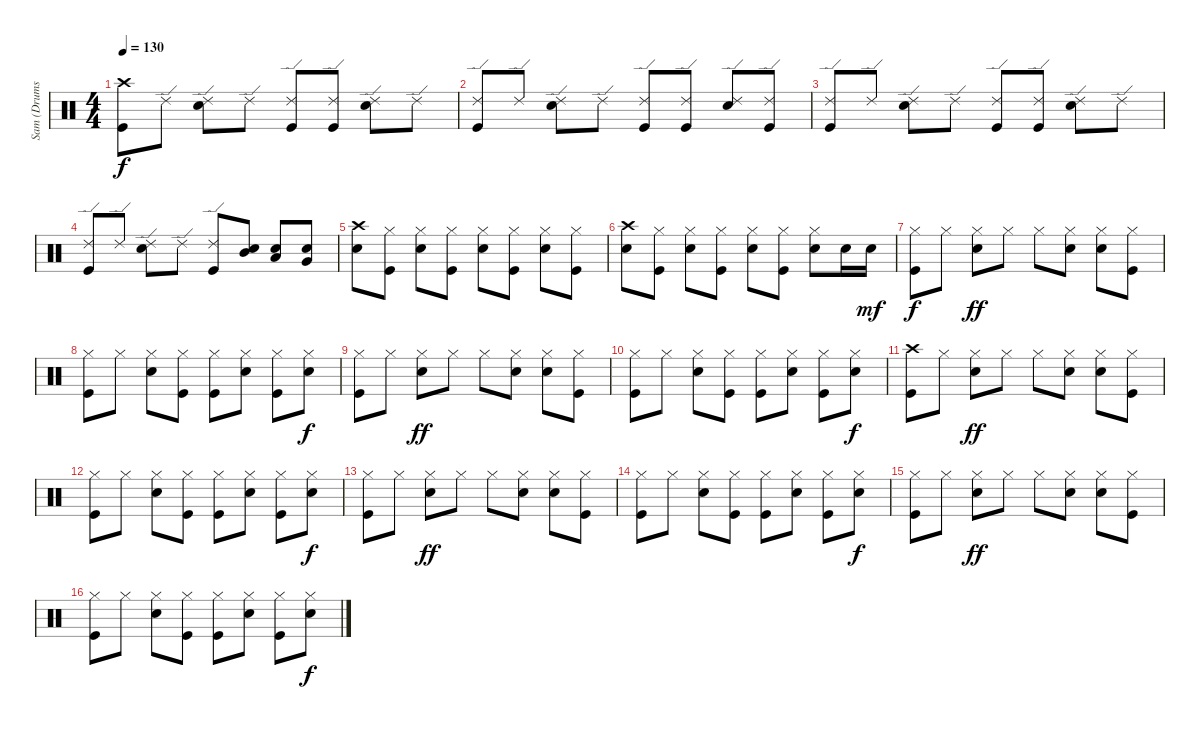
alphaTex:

\track ("Sam (Drums)" "Sam (Drums") {instrument percussion}
\staff {score}
\articulation defaults
\ts (4 4)
\tempo 130
\clef neutral
\ks c
("Crash high (hit)" "Kick (hit)").8{dy f} "Ride (edge) 2".8 ("Ride (edge) 2" "Snare (hit) 2").8 "Ride (edge) 2".8 ("Ride (edge) 2" "Kick (hit)").8 ("Ride (edge) 2" "Kick (hit)").8 ("Ride (edge) 2" "Snare (hit) 2").8 "Ride (edge) 2".8 |
("Ride (edge) 2" "Kick (hit)").8 "Ride (edge) 2".8 ("Ride (edge) 2" "Snare (hit) 2").8 "Ride (edge) 2".8 ("Ride (edge) 2" "Kick (hit)").8 ("Ride (edge) 2" "Kick (hit)").8 ("Ride (edge) 2" "Snare (hit) 2").8 ("Ride (edge) 2" "Kick (hit)").8 |
("Ride (edge) 2" "Kick (hit)").8 "Ride (edge) 2".8 ("Ride (edge) 2" "Snare (hit) 2").8 "Ride (edge) 2".8 ("Ride (edge) 2" "Kick (hit)").8 ("Ride (edge) 2" "Kick (hit)").8 ("Ride (edge) 2" "Snare (hit) 2").8 "Ride (edge) 2".8 |
("Ride (edge) 2" "Kick (hit)").8 "Ride (edge) 2".8 ("Ride (edge) 2" "Snare (hit) 2").8 "Ride (edge) 2".8 ("Ride (edge) 2" "Kick (hit)").8 ("Mid Tom (hit)" "Snare (hit) 2").8 ("Low Tom (hit)" "Snare (hit) 2").8 ("Very Low Tom (hit)" "Snare (hit) 2").8 |
("Crash high (hit)" "Snare (hit) 2").8 ("Hi-Hat (closed)" "Kick (hit)").8 ("Hi-Hat (closed)" "Snare (hit) 2").8 ("Hi-Hat (closed)" "Kick (hit)").8 ("Hi-Hat (closed)" "Snare (hit) 2").8 ("Hi-Hat (closed)" "Kick (hit)").8 ("Hi-Hat (closed)" "Snare (hit) 2").8 ("Hi-Hat (closed)" "Kick (hit)").8 |
("Crash high (hit)" "Snare (hit) 2").8 ("Hi-Hat (closed)" "Kick (hit)").8 ("Hi-Hat (closed)" "Snare (hit) 2").8 ("Hi-Hat (closed)" "Kick (hit)").8 ("Hi-Hat (closed)" "Snare (hit) 2").8 ("Hi-Hat (closed)" "Kick (hit)").8 ("Hi-Hat (closed)" "Snare (hit) 2").8 "Snare (hit) 2".16 "Snare (hit) 2".16{dy mf} |
("Hi-Hat (closed)" "Kick (hit)").8{dy f} "Hi-Hat (closed)".8 ("Hi-Hat (closed)" "Snare (hit) 2").8{dy ff} "Hi-Hat (closed)".8 "Hi-Hat (closed)".8 ("Hi-Hat (closed)" "Snare (hit) 2").8 ("Hi-Hat (closed)" "Snare (hit) 2").8 ("Hi-Hat (closed)" "Kick (hit)").8 |
("Hi-Hat (closed)" "Kick (hit)").8 "Hi-Hat (closed)".8 ("Hi-Hat (closed)" "Snare (hit) 2").8 ("Hi-Hat (closed)" "Kick (hit)").8 ("Hi-Hat (closed)" "Kick (hit)").8 ("Hi-Hat (closed)" "Snare (hit) 2").8 ("Hi-Hat (closed)" "Kick (hit)").8 ("Hi-Hat (closed)" "Snare (hit) 2").8{dy f} |
("Hi-Hat (closed)" "Kick (hit)").8 "Hi-Hat (closed)".8 ("Hi-Hat (closed)" "Snare (hit) 2").8{dy ff} "Hi-Hat (closed)".8 "Hi-Hat (closed)".8 ("Hi-Hat (closed)" "Snare (hit) 2").8 ("Hi-Hat (closed)" "Snare (hit) 2").8 ("Hi-Hat (closed)" "Kick (hit)").8 |
("Hi-Hat (closed)" "Kick (hit)").8 "Hi-Hat (closed)".8 ("Hi-Hat (closed)" "Snare (hit) 2").8 ("Hi-Hat (closed)" "Kick (hit)").8 ("Hi-Hat (closed)" "Kick (hit)").8 ("Hi-Hat (closed)" "Snare (hit) 2").8 ("Hi-Hat (closed)" "Kick (hit)").8 ("Hi-Hat (closed)" "Snare (hit) 2").8{dy f} |
("Crash high (hit)" "Kick (hit)").8 "Hi-Hat (closed)".8 ("Hi-Hat (closed)" "Snare (hit) 2").8{dy ff} "Hi-Hat (closed)".8 "Hi-Hat (closed)".8 ("Hi-Hat (closed)" "Snare (hit) 2").8 ("Hi-Hat (closed)" "Snare (hit) 2").8 ("Hi-Hat (closed)" "Kick (hit)").8 |
("Hi-Hat (closed)" "Kick (hit)").8 "Hi-Hat (closed)".8 ("Hi-Hat (closed)" "Snare (hit) 2").8 ("Hi-Hat (closed)" "Kick (hit)").8 ("Hi-Hat (closed)" "Kick (hit)").8 ("Hi-Hat (closed)" "Snare (hit) 2").8 ("Hi-Hat (closed)" "Kick (hit)").8 ("Hi-Hat (closed)" "Snare (hit) 2").8{dy f} |
("Hi-Hat (closed)" "Kick (hit)").8 "Hi-Hat (closed)".8 ("Hi-Hat (closed)" "Snare (hit) 2").8{dy ff} "Hi-Hat (closed)".8 "Hi-Hat (closed)".8 ("Hi-Hat (closed)" "Snare (hit) 2").8 ("Hi-Hat (closed)" "Snare (hit) 2").8 ("Hi-Hat (closed)" "Kick (hit)").8 |
("Hi-Hat (closed)" "Kick (hit)").8 "Hi-Hat (closed)".8 ("Hi-Hat (closed)" "Snare (hit) 2").8 ("Hi-Hat (closed)" "Kick (hit)").8 ("Hi-Hat (closed)" "Kick (hit)").8 ("Hi-Hat (closed)" "Snare (hit) 2").8 ("Hi-Hat (closed)" "Kick (hit)").8 ("Hi-Hat (closed)" "Snare (hit) 2").8{dy f} |
("Hi-Hat (closed)" "Kick (hit)").8 "Hi-Hat (closed)".8 ("Hi-Hat (closed)" "Snare (hit) 2").8{dy ff} "Hi-Hat (closed)".8 "Hi-Hat (closed)".8 ("Hi-Hat (closed)" "Snare (hit) 2").8 ("Hi-Hat (closed)" "Snare (hit) 2").8 ("Hi-Hat (closed)" "Kick (hit)").8 |
("Hi-Hat (closed)" "Kick (hit)").8 "Hi-Hat (closed)".8 ("Hi-Hat (closed)" "Snare (hit) 2").8 ("Hi-Hat (closed)" "Kick (hit)").8 ("Hi-Hat (closed)" "Kick (hit)").8 ("Hi-Hat (closed)" "Snare (hit) 2").8 ("Hi-Hat (closed)" "Kick (hit)").8 ("Hi-Hat (closed)" "Snare (hit) 2").8{dy f}
